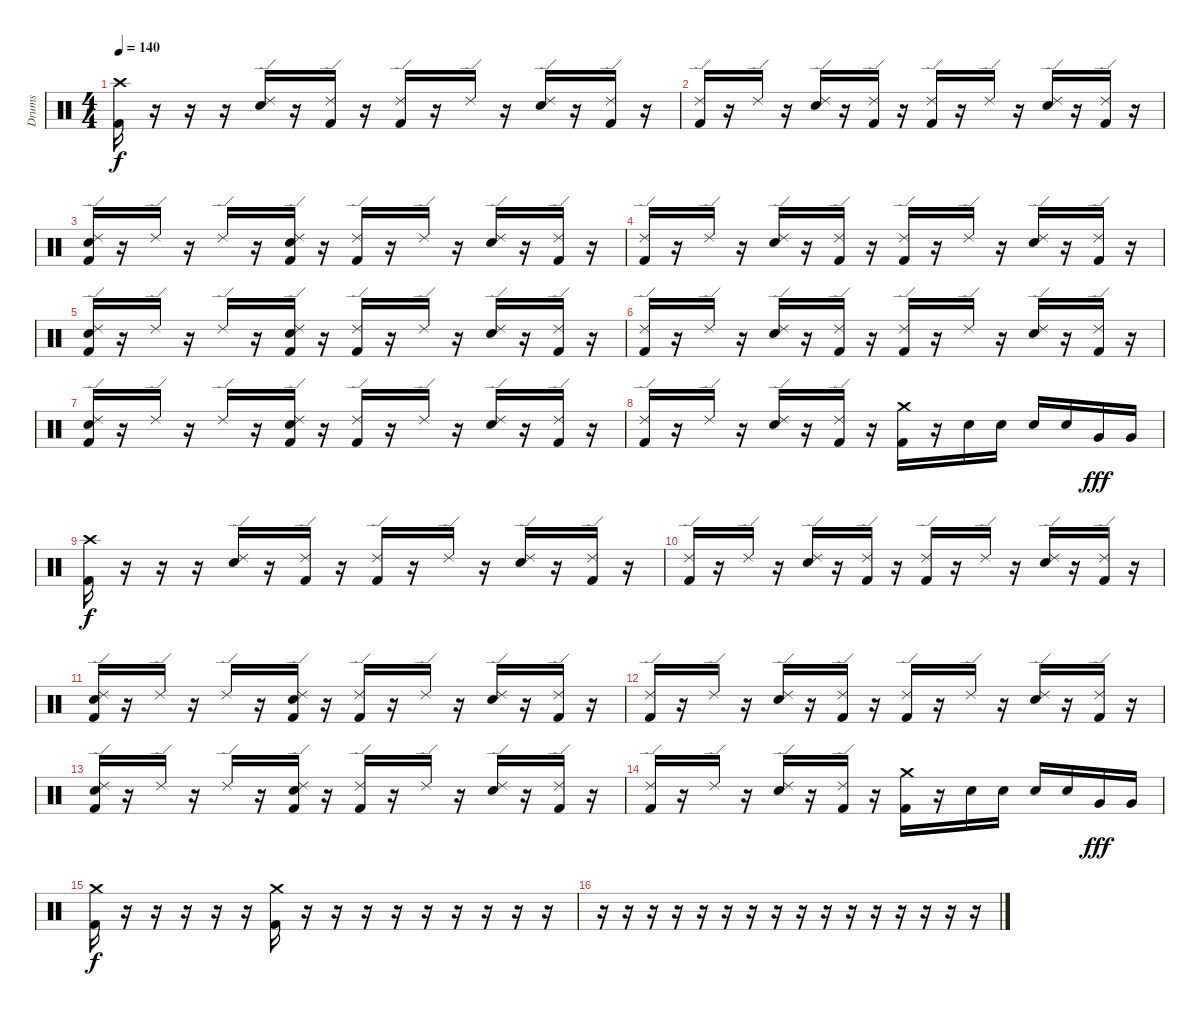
\track ("Drums" "Drums") {instrument percussion}
\staff {score}
\articulation defaults
\ts (4 4)
\tempo 140
\clef neutral
\ks c
("Crash high (hit)" "Kick (hit) 2").16{dy f} r.16 r.16 r.16 ("Ride (edge) 2" "Electric Snare (hit)").16 r.16 ("Ride (edge) 2" "Kick (hit) 2").16 r.16 ("Ride (edge) 2" "Kick (hit) 2").16 r.16 "Ride (edge) 2".16 r.16 ("Ride (edge) 2" "Electric Snare (hit)").16 r.16 ("Ride (edge) 2" "Kick (hit) 2").16 r.16 |
("Ride (edge) 2" "Kick (hit) 2").16 r.16 "Ride (edge) 2".16 r.16 ("Ride (edge) 2" "Electric Snare (hit)").16 r.16 ("Ride (edge) 2" "Kick (hit) 2").16 r.16 ("Ride (edge) 2" "Kick (hit) 2").16 r.16 "Ride (edge) 2".16 r.16 ("Ride (edge) 2" "Electric Snare (hit)").16 r.16 ("Ride (edge) 2" "Kick (hit) 2").16 r.16 |
("Ride (edge) 2" "Electric Snare (hit)" "Kick (hit) 2").16 r.16 "Ride (edge) 2".16 r.16 "Ride (edge) 2".16 r.16 ("Ride (edge) 2" "Electric Snare (hit)" "Kick (hit) 2").16 r.16 ("Ride (edge) 2" "Kick (hit) 2").16 r.16 "Ride (edge) 2".16 r.16 ("Ride (edge) 2" "Electric Snare (hit)").16 r.16 ("Ride (edge) 2" "Kick (hit) 2").16 r.16 |
("Ride (edge) 2" "Kick (hit) 2").16 r.16 "Ride (edge) 2".16 r.16 ("Ride (edge) 2" "Electric Snare (hit)").16 r.16 ("Ride (edge) 2" "Kick (hit) 2").16 r.16 ("Ride (edge) 2" "Kick (hit) 2").16 r.16 "Ride (edge) 2".16 r.16 ("Ride (edge) 2" "Electric Snare (hit)").16 r.16 ("Ride (edge) 2" "Kick (hit) 2").16 r.16 |
("Ride (edge) 2" "Electric Snare (hit)" "Kick (hit) 2").16 r.16 "Ride (edge) 2".16 r.16 "Ride (edge) 2".16 r.16 ("Ride (edge) 2" "Electric Snare (hit)" "Kick (hit) 2").16 r.16 ("Ride (edge) 2" "Kick (hit) 2").16 r.16 "Ride (edge) 2".16 r.16 ("Ride (edge) 2" "Electric Snare (hit)").16 r.16 ("Ride (edge) 2" "Kick (hit) 2").16 r.16 |
("Ride (edge) 2" "Kick (hit) 2").16 r.16 "Ride (edge) 2".16 r.16 ("Ride (edge) 2" "Electric Snare (hit)").16 r.16 ("Ride (edge) 2" "Kick (hit) 2").16 r.16 ("Ride (edge) 2" "Kick (hit) 2").16 r.16 "Ride (edge) 2".16 r.16 ("Ride (edge) 2" "Electric Snare (hit)").16 r.16 ("Ride (edge) 2" "Kick (hit) 2").16 r.16 |
("Ride (edge) 2" "Electric Snare (hit)" "Kick (hit) 2").16 r.16 "Ride (edge) 2".16 r.16 "Ride (edge) 2".16 r.16 ("Ride (edge) 2" "Electric Snare (hit)" "Kick (hit) 2").16 r.16 ("Ride (edge) 2" "Kick (hit) 2").16 r.16 "Ride (edge) 2".16 r.16 ("Ride (edge) 2" "Electric Snare (hit)").16 r.16 ("Ride (edge) 2" "Kick (hit) 2").16 r.16 |
("Ride (edge) 2" "Kick (hit) 2").16 r.16 "Ride (edge) 2".16 r.16 ("Ride (edge) 2" "Electric Snare (hit)").16 r.16 ("Ride (edge) 2" "Kick (hit) 2").16 r.16 ("Crash medium (hit)" "Kick (hit) 2").16 r.16 "Electric Snare (hit)".16 "Electric Snare (hit)".16 "Electric Snare (hit)".16 "Electric Snare (hit)".16 "Very Low Tom (hit)".16{dy fff} "Very Low Tom (hit)".16 |
("Crash high (hit)" "Kick (hit) 2").16{dy f} r.16 r.16 r.16 ("Ride (edge) 2" "Electric Snare (hit)").16 r.16 ("Ride (edge) 2" "Kick (hit) 2").16 r.16 ("Ride (edge) 2" "Kick (hit) 2").16 r.16 "Ride (edge) 2".16 r.16 ("Ride (edge) 2" "Electric Snare (hit)").16 r.16 ("Ride (edge) 2" "Kick (hit) 2").16 r.16 |
("Ride (edge) 2" "Kick (hit) 2").16 r.16 "Ride (edge) 2".16 r.16 ("Ride (edge) 2" "Electric Snare (hit)").16 r.16 ("Ride (edge) 2" "Kick (hit) 2").16 r.16 ("Ride (edge) 2" "Kick (hit) 2").16 r.16 "Ride (edge) 2".16 r.16 ("Ride (edge) 2" "Electric Snare (hit)").16 r.16 ("Ride (edge) 2" "Kick (hit) 2").16 r.16 |
("Ride (edge) 2" "Electric Snare (hit)" "Kick (hit) 2").16 r.16 "Ride (edge) 2".16 r.16 "Ride (edge) 2".16 r.16 ("Ride (edge) 2" "Electric Snare (hit)" "Kick (hit) 2").16 r.16 ("Ride (edge) 2" "Kick (hit) 2").16 r.16 "Ride (edge) 2".16 r.16 ("Ride (edge) 2" "Electric Snare (hit)").16 r.16 ("Ride (edge) 2" "Kick (hit) 2").16 r.16 |
("Ride (edge) 2" "Kick (hit) 2").16 r.16 "Ride (edge) 2".16 r.16 ("Ride (edge) 2" "Electric Snare (hit)").16 r.16 ("Ride (edge) 2" "Kick (hit) 2").16 r.16 ("Ride (edge) 2" "Kick (hit) 2").16 r.16 "Ride (edge) 2".16 r.16 ("Ride (edge) 2" "Electric Snare (hit)").16 r.16 ("Ride (edge) 2" "Kick (hit) 2").16 r.16 |
("Ride (edge) 2" "Electric Snare (hit)" "Kick (hit) 2").16 r.16 "Ride (edge) 2".16 r.16 "Ride (edge) 2".16 r.16 ("Ride (edge) 2" "Electric Snare (hit)" "Kick (hit) 2").16 r.16 ("Ride (edge) 2" "Kick (hit) 2").16 r.16 "Ride (edge) 2".16 r.16 ("Ride (edge) 2" "Electric Snare (hit)").16 r.16 ("Ride (edge) 2" "Kick (hit) 2").16 r.16 |
("Ride (edge) 2" "Kick (hit) 2").16 r.16 "Ride (edge) 2".16 r.16 ("Ride (edge) 2" "Electric Snare (hit)").16 r.16 ("Ride (edge) 2" "Kick (hit) 2").16 r.16 ("Crash medium (hit)" "Kick (hit) 2").16 r.16 "Electric Snare (hit)".16 "Electric Snare (hit)".16 "Electric Snare (hit)".16 "Electric Snare (hit)".16 "Very Low Tom (hit)".16{dy fff} "Very Low Tom (hit)".16 |
("Crash medium (hit)" "Kick (hit) 2").16{dy f} r.16 r.16 r.16 r.16 r.16 ("Crash medium (hit)" "Kick (hit) 2").16 r.16 r.16 r.16 r.16 r.16 r.16 r.16 r.16 r.16 |
r.16 r.16 r.16 r.16 r.16 r.16 r.16 r.16 r.16 r.16 r.16 r.16 r.16 r.16 r.16 r.16
